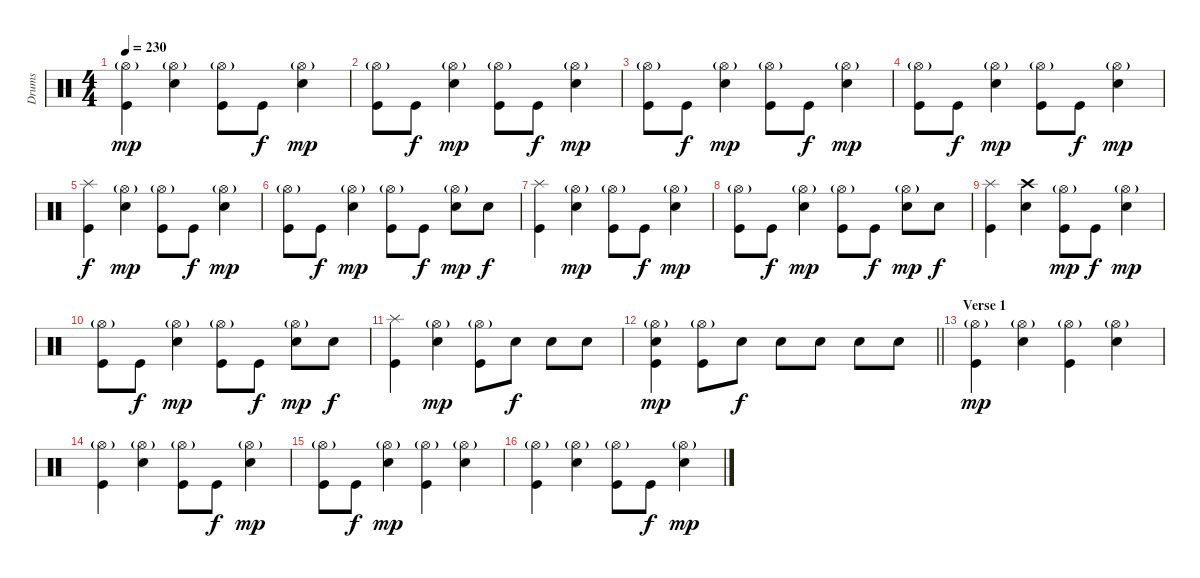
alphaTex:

\track ("Drums" "Drums") {instrument percussion}
\staff {score}
\articulation defaults
\ts (4 4)
\tempo 230
\clef neutral
\ks c
("Hi-Hat (open)"{g} "Kick (hit)").4{dy mp} ("Hi-Hat (open)"{g} "Snare (hit) 2").4 ("Hi-Hat (open)"{g} "Kick (hit)").8 "Kick (hit)".8{dy f} ("Hi-Hat (open)"{g} "Snare (hit) 2").4{dy mp} |
("Hi-Hat (open)"{g} "Kick (hit)").8 "Kick (hit)".8{dy f} ("Hi-Hat (open)"{g} "Snare (hit) 2").4{dy mp} ("Hi-Hat (open)"{g} "Kick (hit)").8 "Kick (hit)".8{dy f} ("Hi-Hat (open)"{g} "Snare (hit) 2").4{dy mp} |
("Hi-Hat (open)"{g} "Kick (hit)").8 "Kick (hit)".8{dy f} ("Hi-Hat (open)"{g} "Snare (hit) 2").4{dy mp} ("Hi-Hat (open)"{g} "Kick (hit)").8 "Kick (hit)".8{dy f} ("Hi-Hat (open)"{g} "Snare (hit) 2").4{dy mp} |
("Hi-Hat (open)"{g} "Kick (hit)").8 "Kick (hit)".8{dy f} ("Hi-Hat (open)"{g} "Snare (hit) 2").4{dy mp} ("Hi-Hat (open)"{g} "Kick (hit)").8 "Kick (hit)".8{dy f} ("Hi-Hat (open)"{g} "Snare (hit) 2").4{dy mp} |
("Splash (hit)" "Kick (hit)").4{dy f} ("Hi-Hat (open)"{g} "Snare (hit) 2").4{dy mp} ("Hi-Hat (open)"{g} "Kick (hit)").8 "Kick (hit)".8{dy f} ("Hi-Hat (open)"{g} "Snare (hit) 2").4{dy mp} |
("Hi-Hat (open)"{g} "Kick (hit)").8 "Kick (hit)".8{dy f} ("Hi-Hat (open)"{g} "Snare (hit) 2").4{dy mp} ("Hi-Hat (open)"{g} "Kick (hit)").8 "Kick (hit)".8{dy f} ("Hi-Hat (open)"{g} "Snare (hit) 2").8{dy mp} "Snare (hit) 2".8{dy f} |
("Splash (hit)" "Kick (hit)").4 ("Hi-Hat (open)"{g} "Snare (hit) 2").4{dy mp} ("Hi-Hat (open)"{g} "Kick (hit)").8 "Kick (hit)".8{dy f} ("Hi-Hat (open)"{g} "Snare (hit) 2").4{dy mp} |
("Hi-Hat (open)"{g} "Kick (hit)").8 "Kick (hit)".8{dy f} ("Hi-Hat (open)"{g} "Snare (hit) 2").4{dy mp} ("Hi-Hat (open)"{g} "Kick (hit)").8 "Kick (hit)".8{dy f} ("Hi-Hat (open)"{g} "Snare (hit) 2").8{dy mp} "Snare (hit) 2".8{dy f} |
("Splash (hit)" "Kick (hit)").4 ("Crash high (hit)" "Snare (hit) 2").4 ("Hi-Hat (open)"{g} "Kick (hit)").8{dy mp} "Kick (hit)".8{dy f} ("Hi-Hat (open)"{g} "Snare (hit) 2").4{dy mp} |
("Hi-Hat (open)"{g} "Kick (hit)").8 "Kick (hit)".8{dy f} ("Hi-Hat (open)"{g} "Snare (hit) 2").4{dy mp} ("Hi-Hat (open)"{g} "Kick (hit)").8 "Kick (hit)".8{dy f} ("Hi-Hat (open)"{g} "Snare (hit) 2").8{dy mp} "Snare (hit) 2".8{dy f} |
("Splash (hit)" "Kick (hit)").4 ("Hi-Hat (open)"{g} "Snare (hit) 2").4{dy mp} ("Hi-Hat (open)"{g} "Kick (hit)").8 "Snare (hit) 2".8{dy f} "Snare (hit) 2".8 "Snare (hit) 2".8 |
\barLineRight lightlight
("Hi-Hat (open)"{g} "Snare (hit) 2" "Kick (hit)").4{dy mp} ("Hi-Hat (open)"{g} "Kick (hit)").8 "Snare (hit) 2".8{dy f} "Snare (hit) 2".8 "Snare (hit) 2".8 "Snare (hit) 2".8 "Snare (hit) 2".8 |
\section ("" "Verse 1")
("Hi-Hat (open)"{g} "Kick (hit)").4{dy mp} ("Hi-Hat (open)"{g} "Snare (hit) 2").4 ("Hi-Hat (open)"{g} "Kick (hit)").4 ("Hi-Hat (open)"{g} "Snare (hit) 2").4 |
("Hi-Hat (open)"{g} "Kick (hit)").4 ("Hi-Hat (open)"{g} "Snare (hit) 2").4 ("Hi-Hat (open)"{g} "Kick (hit)").8 "Kick (hit)".8{dy f} ("Hi-Hat (open)"{g} "Snare (hit) 2").4{dy mp} |
("Hi-Hat (open)"{g} "Kick (hit)").8 "Kick (hit)".8{dy f} ("Hi-Hat (open)"{g} "Snare (hit) 2").4{dy mp} ("Hi-Hat (open)"{g} "Kick (hit)").4 ("Hi-Hat (open)"{g} "Snare (hit) 2").4 |
("Hi-Hat (open)"{g} "Kick (hit)").4 ("Hi-Hat (open)"{g} "Snare (hit) 2").4 ("Hi-Hat (open)"{g} "Kick (hit)").8 "Kick (hit)".8{dy f} ("Hi-Hat (open)"{g} "Snare (hit) 2").4{dy mp}
